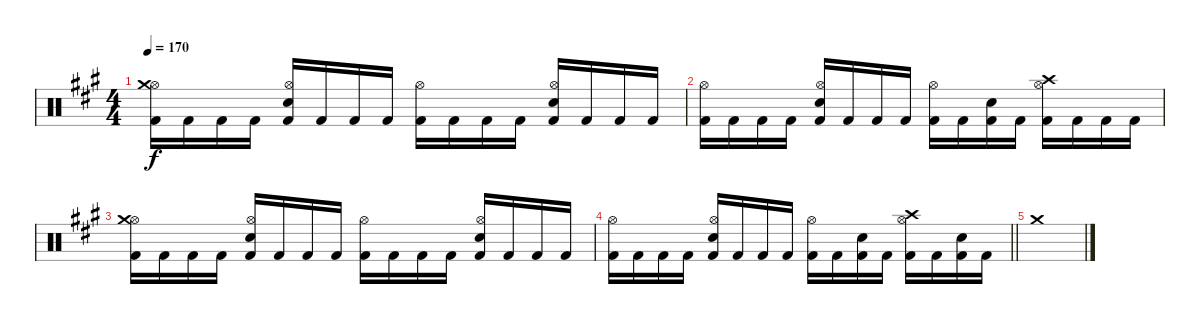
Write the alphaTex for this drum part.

\track "" {instrument percussion}
\staff {score}
\articulation defaults
\ts (4 4)
\tempo 170
\clef neutral
\ks f#minor
("Kick (hit) 2" "Hi-Hat (open)" "Crash medium (hit)").16{dy f} "Kick (hit) 2".16 "Kick (hit) 2".16 "Kick (hit) 2".16 ("Kick (hit) 2" "Electric Snare (hit)" "Hi-Hat (open)").16 "Kick (hit) 2".16 "Kick (hit) 2".16 "Kick (hit) 2".16 ("Kick (hit) 2" "Hi-Hat (open)").16 "Kick (hit) 2".16 "Kick (hit) 2".16 "Kick (hit) 2".16 ("Kick (hit) 2" "Electric Snare (hit)" "Hi-Hat (open)").16 "Kick (hit) 2".16 "Kick (hit) 2".16 "Kick (hit) 2".16 |
("Kick (hit) 2" "Hi-Hat (open)").16 "Kick (hit) 2".16 "Kick (hit) 2".16 "Kick (hit) 2".16 ("Kick (hit) 2" "Electric Snare (hit)" "Hi-Hat (open)").16 "Kick (hit) 2".16 "Kick (hit) 2".16 "Kick (hit) 2".16 ("Kick (hit) 2" "Hi-Hat (open)").16 "Kick (hit) 2".16 ("Kick (hit) 2" "Electric Snare (hit)").16 "Kick (hit) 2".16 ("Kick (hit) 2" "Hi-Hat (open)" "Crash high (hit)").16 "Kick (hit) 2".16 "Kick (hit) 2".16 "Kick (hit) 2".16 |
("Kick (hit) 2" "Hi-Hat (open)" "Crash medium (hit)").16 "Kick (hit) 2".16 "Kick (hit) 2".16 "Kick (hit) 2".16 ("Kick (hit) 2" "Electric Snare (hit)" "Hi-Hat (open)").16 "Kick (hit) 2".16 "Kick (hit) 2".16 "Kick (hit) 2".16 ("Kick (hit) 2" "Hi-Hat (open)").16 "Kick (hit) 2".16 "Kick (hit) 2".16 "Kick (hit) 2".16 ("Kick (hit) 2" "Electric Snare (hit)" "Hi-Hat (open)").16 "Kick (hit) 2".16 "Kick (hit) 2".16 "Kick (hit) 2".16 |
\barLineRight lightlight
("Kick (hit) 2" "Hi-Hat (open)").16 "Kick (hit) 2".16 "Kick (hit) 2".16 "Kick (hit) 2".16 ("Kick (hit) 2" "Electric Snare (hit)" "Hi-Hat (open)").16 "Kick (hit) 2".16 "Kick (hit) 2".16 "Kick (hit) 2".16 ("Kick (hit) 2" "Hi-Hat (open)").16 "Kick (hit) 2".16 ("Kick (hit) 2" "Electric Snare (hit)").16 "Kick (hit) 2".16 ("Kick (hit) 2" "Hi-Hat (open)" "Crash high (hit)").16 "Kick (hit) 2".16 ("Kick (hit) 2" "Electric Snare (hit)").16 "Kick (hit) 2".16 |
"Crash medium (hit)".1
